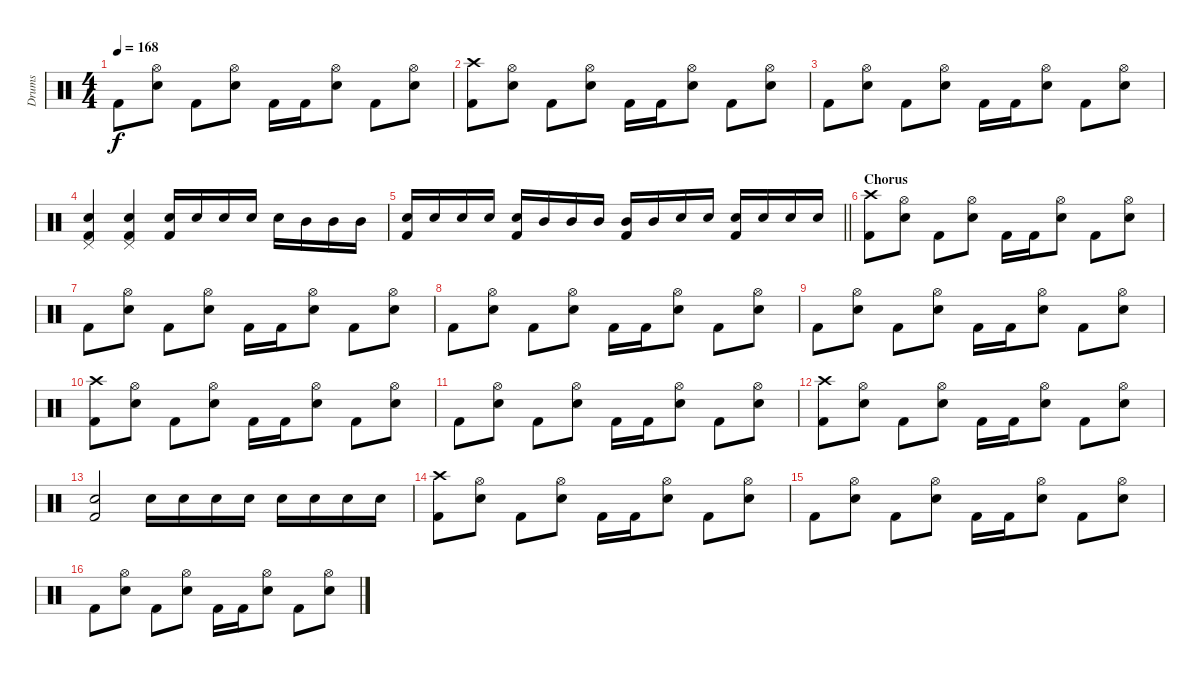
\track ("Drums" "Drums") {instrument percussion}
\staff {score}
\articulation defaults
\ts (4 4)
\tempo 168
\clef neutral
\ks c "Kick (hit) 2".8{dy f}
("Snare (hit) 2" "Hi-Hat (open)").8 "Kick (hit) 2".8 ("Snare (hit) 2" "Hi-Hat (open)").8 "Kick (hit) 2".16 "Kick (hit) 2".16 ("Snare (hit) 2" "Hi-Hat (open)").8 "Kick (hit) 2".8 ("Snare (hit) 2" "Hi-Hat (open)").8 |
("Kick (hit) 2" "Crash high (hit)").8 ("Snare (hit) 2" "Hi-Hat (open)").8 "Kick (hit) 2".8 ("Snare (hit) 2" "Hi-Hat (open)").8 "Kick (hit) 2".16 "Kick (hit) 2".16 ("Snare (hit) 2" "Hi-Hat (open)").8 "Kick (hit) 2".8 ("Snare (hit) 2" "Hi-Hat (open)").8 |
"Kick (hit) 2".8 ("Snare (hit) 2" "Hi-Hat (open)").8 "Kick (hit) 2".8 ("Snare (hit) 2" "Hi-Hat (open)").8 "Kick (hit) 2".16 "Kick (hit) 2".16 ("Snare (hit) 2" "Hi-Hat (open)").8 "Kick (hit) 2".8 ("Snare (hit) 2" "Hi-Hat (open)").8 |
("Kick (hit) 2" "Snare (hit) 2" "Pedal Hi-Hat (hit)").4 ("Kick (hit) 2" "Snare (hit) 2" "Pedal Hi-Hat (hit)").4 ("Kick (hit) 2" "Snare (hit) 2").16 "Snare (hit) 2".16 "Snare (hit) 2".16 "Snare (hit) 2".16 "Snare (hit) 2".16 "Mid Tom (hit)".16 "Mid Tom (hit)".16 "Mid Tom (hit)".16 |
\barLineRight lightlight
("Kick (hit) 2" "Snare (hit) 2").16 "Snare (hit) 2".16 "Snare (hit) 2".16 "Snare (hit) 2".16 ("Kick (hit) 2" "Snare (hit) 2").16 "Mid Tom (hit)".16 "Mid Tom (hit)".16 "Mid Tom (hit)".16 ("Kick (hit) 2" "Mid Tom (hit)").16 "Mid Tom (hit)".16 "Snare (hit) 2".16 "Snare (hit) 2".16 ("Kick (hit) 2" "Snare (hit) 2").16 "Snare (hit) 2".16 "Snare (hit) 2".16 "Snare (hit) 2".16 |
\section ("" "Chorus")
("Kick (hit) 2" "Crash high (hit)").8 ("Snare (hit) 2" "Hi-Hat (open)").8 "Kick (hit) 2".8 ("Snare (hit) 2" "Hi-Hat (open)").8 "Kick (hit) 2".16 "Kick (hit) 2".16 ("Snare (hit) 2" "Hi-Hat (open)").8 "Kick (hit) 2".8 ("Snare (hit) 2" "Hi-Hat (open)").8 |
"Kick (hit) 2".8 ("Snare (hit) 2" "Hi-Hat (open)").8 "Kick (hit) 2".8 ("Snare (hit) 2" "Hi-Hat (open)").8 "Kick (hit) 2".16 "Kick (hit) 2".16 ("Snare (hit) 2" "Hi-Hat (open)").8 "Kick (hit) 2".8 ("Snare (hit) 2" "Hi-Hat (open)").8 |
"Kick (hit) 2".8 ("Snare (hit) 2" "Hi-Hat (open)").8 "Kick (hit) 2".8 ("Snare (hit) 2" "Hi-Hat (open)").8 "Kick (hit) 2".16 "Kick (hit) 2".16 ("Snare (hit) 2" "Hi-Hat (open)").8 "Kick (hit) 2".8 ("Snare (hit) 2" "Hi-Hat (open)").8 |
"Kick (hit) 2".8 ("Snare (hit) 2" "Hi-Hat (open)").8 "Kick (hit) 2".8 ("Snare (hit) 2" "Hi-Hat (open)").8 "Kick (hit) 2".16 "Kick (hit) 2".16 ("Snare (hit) 2" "Hi-Hat (open)").8 "Kick (hit) 2".8 ("Snare (hit) 2" "Hi-Hat (open)").8 |
("Kick (hit) 2" "Crash high (hit)").8 ("Snare (hit) 2" "Hi-Hat (open)").8 "Kick (hit) 2".8 ("Snare (hit) 2" "Hi-Hat (open)").8 "Kick (hit) 2".16 "Kick (hit) 2".16 ("Snare (hit) 2" "Hi-Hat (open)").8 "Kick (hit) 2".8 ("Snare (hit) 2" "Hi-Hat (open)").8 |
"Kick (hit) 2".8 ("Snare (hit) 2" "Hi-Hat (open)").8 "Kick (hit) 2".8 ("Snare (hit) 2" "Hi-Hat (open)").8 "Kick (hit) 2".16 "Kick (hit) 2".16 ("Snare (hit) 2" "Hi-Hat (open)").8 "Kick (hit) 2".8 ("Snare (hit) 2" "Hi-Hat (open)").8 |
("Kick (hit) 2" "Crash high (hit)").8 ("Snare (hit) 2" "Hi-Hat (open)").8 "Kick (hit) 2".8 ("Snare (hit) 2" "Hi-Hat (open)").8 "Kick (hit) 2".16 "Kick (hit) 2".16 ("Snare (hit) 2" "Hi-Hat (open)").8 "Kick (hit) 2".8 ("Snare (hit) 2" "Hi-Hat (open)").8 |
("Kick (hit) 2" "Snare (hit) 2").2 "Snare (hit) 2".16 "Snare (hit) 2".16 "Snare (hit) 2".16 "Snare (hit) 2".16 "Snare (hit) 2".16 "Snare (hit) 2".16 "Snare (hit) 2".16 "Snare (hit) 2".16 |
("Kick (hit) 2" "Crash high (hit)").8 ("Snare (hit) 2" "Hi-Hat (open)").8 "Kick (hit) 2".8 ("Snare (hit) 2" "Hi-Hat (open)").8 "Kick (hit) 2".16 "Kick (hit) 2".16 ("Snare (hit) 2" "Hi-Hat (open)").8 "Kick (hit) 2".8 ("Snare (hit) 2" "Hi-Hat (open)").8 |
"Kick (hit) 2".8 ("Snare (hit) 2" "Hi-Hat (open)").8 "Kick (hit) 2".8 ("Snare (hit) 2" "Hi-Hat (open)").8 "Kick (hit) 2".16 "Kick (hit) 2".16 ("Snare (hit) 2" "Hi-Hat (open)").8 "Kick (hit) 2".8 ("Snare (hit) 2" "Hi-Hat (open)").8 |
"Kick (hit) 2".8 ("Snare (hit) 2" "Hi-Hat (open)").8 "Kick (hit) 2".8 ("Snare (hit) 2" "Hi-Hat (open)").8 "Kick (hit) 2".16 "Kick (hit) 2".16 ("Snare (hit) 2" "Hi-Hat (open)").8 "Kick (hit) 2".8 ("Snare (hit) 2" "Hi-Hat (open)").8
